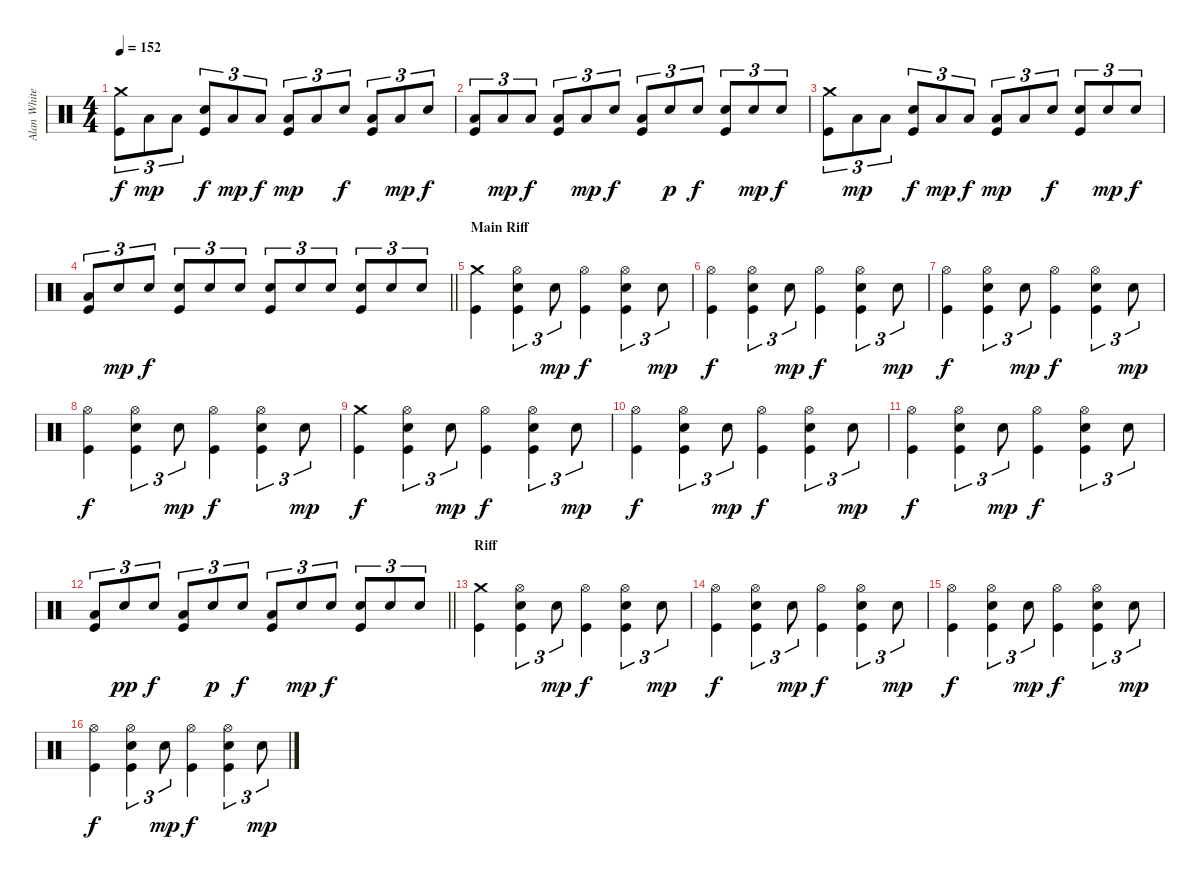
\track ("Alan White" "Alan White") {instrument percussion}
\staff {score}
\articulation defaults
\ts (4 4)
\tempo 152
\clef neutral
\ks c
("Crash medium (hit)" "Kick (hit)").8{tu (3 2) dy f} "Low Tom (hit)".8{tu (3 2) dy mp} "Low Tom (hit)".8{tu (3 2)} ("Electric Snare (hit)" "Kick (hit)").8{tu (3 2) dy f} "Low Tom (hit)".8{tu (3 2) dy mp} "Low Tom (hit)".8{tu (3 2) dy f} ("Low Tom (hit)" "Kick (hit)").8{tu (3 2) dy mp} "Low Tom (hit)".8{tu (3 2)} "Electric Snare (hit)".8{tu (3 2) dy f} ("Low Floor Tom (hit)" "Kick (hit)").8{tu (3 2)} "Low Tom (hit)".8{tu (3 2) dy mp} "Electric Snare (hit)".8{tu (3 2) dy f} |
("Low Tom (hit)" "Kick (hit)").8{tu (3 2)} "Low Tom (hit)".8{tu (3 2) dy mp} "Low Tom (hit)".8{tu (3 2) dy f} ("Low Tom (hit)" "Kick (hit)").8{tu (3 2)} "Low Tom (hit)".8{tu (3 2) dy mp} "Electric Snare (hit)".8{tu (3 2) dy f} ("Low Floor Tom (hit)" "Kick (hit)").8{tu (3 2)} "Electric Snare (hit)".8{tu (3 2) dy p} "Electric Snare (hit)".8{tu (3 2) dy f} ("Electric Snare (hit)" "Kick (hit)").8{tu (3 2)} "Electric Snare (hit)".8{tu (3 2) dy mp} "Electric Snare (hit)".8{tu (3 2) dy f} |
("Crash medium (hit)" "Kick (hit)").8{tu (3 2)} "Low Tom (hit)".8{tu (3 2) dy mp} "Low Tom (hit)".8{tu (3 2)} ("Electric Snare (hit)" "Kick (hit)").8{tu (3 2) dy f} "Low Tom (hit)".8{tu (3 2) dy mp} "Low Tom (hit)".8{tu (3 2) dy f} ("Low Tom (hit)" "Kick (hit)").8{tu (3 2) dy mp} "Low Tom (hit)".8{tu (3 2)} "Electric Snare (hit)".8{tu (3 2) dy f} ("Electric Snare (hit)" "Kick (hit)").8{tu (3 2)} "Electric Snare (hit)".8{tu (3 2) dy mp} "Electric Snare (hit)".8{tu (3 2) dy f} |
\barLineRight lightlight
("Low Tom (hit)" "Kick (hit)").8{tu (3 2)} "Electric Snare (hit)".8{tu (3 2) dy mp} "Electric Snare (hit)".8{tu (3 2) dy f} ("Electric Snare (hit)" "Kick (hit)").8{tu (3 2)} "Electric Snare (hit)".8{tu (3 2)} "Electric Snare (hit)".8{tu (3 2)} ("Electric Snare (hit)" "Kick (hit)").8{tu (3 2)} "Electric Snare (hit)".8{tu (3 2)} "Electric Snare (hit)".8{tu (3 2)} ("Electric Snare (hit)" "Kick (hit)").8{tu (3 2)} "Electric Snare (hit)".8{tu (3 2)} "Electric Snare (hit)".8{tu (3 2)} |
\section ("" "Main Riff")
("Crash medium (hit)" "Kick (hit)").4 ("Hi-Hat (open)" "Electric Snare (hit)" "Kick (hit)").4{tu (3 2)} "Electric Snare (hit)".8{tu (3 2) dy mp} ("Hi-Hat (open)" "Kick (hit)").4{dy f} ("Hi-Hat (open)" "Electric Snare (hit)" "Kick (hit)").4{tu (3 2)} "Electric Snare (hit)".8{tu (3 2) dy mp} |
("Hi-Hat (open)" "Kick (hit)").4{dy f} ("Hi-Hat (open)" "Electric Snare (hit)" "Kick (hit)").4{tu (3 2)} "Electric Snare (hit)".8{tu (3 2) dy mp} ("Hi-Hat (open)" "Kick (hit)").4{dy f} ("Hi-Hat (open)" "Electric Snare (hit)" "Kick (hit)").4{tu (3 2)} "Electric Snare (hit)".8{tu (3 2) dy mp} |
("Hi-Hat (open)" "Kick (hit)").4{dy f} ("Hi-Hat (open)" "Electric Snare (hit)" "Kick (hit)").4{tu (3 2)} "Electric Snare (hit)".8{tu (3 2) dy mp} ("Hi-Hat (open)" "Kick (hit)").4{dy f} ("Hi-Hat (open)" "Electric Snare (hit)" "Kick (hit)").4{tu (3 2)} "Electric Snare (hit)".8{tu (3 2) dy mp} |
("Hi-Hat (open)" "Kick (hit)").4{dy f} ("Hi-Hat (open)" "Electric Snare (hit)" "Kick (hit)").4{tu (3 2)} "Electric Snare (hit)".8{tu (3 2) dy mp} ("Hi-Hat (open)" "Kick (hit)").4{dy f} ("Hi-Hat (open)" "Electric Snare (hit)" "Kick (hit)").4{tu (3 2)} "Electric Snare (hit)".8{tu (3 2) dy mp} |
("Crash medium (hit)" "Kick (hit)").4{dy f} ("Hi-Hat (open)" "Electric Snare (hit)" "Kick (hit)").4{tu (3 2)} "Electric Snare (hit)".8{tu (3 2) dy mp} ("Hi-Hat (open)" "Kick (hit)").4{dy f} ("Hi-Hat (open)" "Electric Snare (hit)" "Kick (hit)").4{tu (3 2)} "Electric Snare (hit)".8{tu (3 2) dy mp} |
("Hi-Hat (open)" "Kick (hit)").4{dy f} ("Hi-Hat (open)" "Electric Snare (hit)" "Kick (hit)").4{tu (3 2)} "Electric Snare (hit)".8{tu (3 2) dy mp} ("Hi-Hat (open)" "Kick (hit)").4{dy f} ("Hi-Hat (open)" "Electric Snare (hit)" "Kick (hit)").4{tu (3 2)} "Electric Snare (hit)".8{tu (3 2) dy mp} |
("Hi-Hat (open)" "Kick (hit)").4{dy f} ("Hi-Hat (open)" "Electric Snare (hit)" "Kick (hit)").4{tu (3 2)} "Electric Snare (hit)".8{tu (3 2) dy mp} ("Hi-Hat (open)" "Kick (hit)").4{dy f} ("Hi-Hat (open)" "Electric Snare (hit)" "Kick (hit)").4{tu (3 2)} "Electric Snare (hit)".8{tu (3 2)} |
\barLineRight lightlight
("Low Tom (hit)" "Kick (hit)").8{tu (3 2)} "Electric Snare (hit)".8{tu (3 2) dy pp} "Electric Snare (hit)".8{tu (3 2) dy f} ("Low Floor Tom (hit)" "Kick (hit)").8{tu (3 2)} "Electric Snare (hit)".8{tu (3 2) dy p} "Electric Snare (hit)".8{tu (3 2) dy f} ("Low Tom (hit)" "Kick (hit)").8{tu (3 2)} "Electric Snare (hit)".8{tu (3 2) dy mp} "Electric Snare (hit)".8{tu (3 2) dy f} ("Electric Snare (hit)" "Kick (hit)").8{tu (3 2)} "Electric Snare (hit)".8{tu (3 2)} "Electric Snare (hit)".8{tu (3 2)} |
\section ("" "Riff")
("Crash medium (hit)" "Kick (hit)").4 ("Hi-Hat (open)" "Electric Snare (hit)" "Kick (hit)").4{tu (3 2)} "Electric Snare (hit)".8{tu (3 2) dy mp} ("Hi-Hat (open)" "Kick (hit)").4{dy f} ("Hi-Hat (open)" "Electric Snare (hit)" "Kick (hit)").4{tu (3 2)} "Electric Snare (hit)".8{tu (3 2) dy mp} |
("Hi-Hat (open)" "Kick (hit)").4{dy f} ("Hi-Hat (open)" "Electric Snare (hit)" "Kick (hit)").4{tu (3 2)} "Electric Snare (hit)".8{tu (3 2) dy mp} ("Hi-Hat (open)" "Kick (hit)").4{dy f} ("Hi-Hat (open)" "Electric Snare (hit)" "Kick (hit)").4{tu (3 2)} "Electric Snare (hit)".8{tu (3 2) dy mp} |
("Hi-Hat (open)" "Kick (hit)").4{dy f} ("Hi-Hat (open)" "Electric Snare (hit)" "Kick (hit)").4{tu (3 2)} "Electric Snare (hit)".8{tu (3 2) dy mp} ("Hi-Hat (open)" "Kick (hit)").4{dy f} ("Hi-Hat (open)" "Electric Snare (hit)" "Kick (hit)").4{tu (3 2)} "Electric Snare (hit)".8{tu (3 2) dy mp} |
("Hi-Hat (open)" "Kick (hit)").4{dy f} ("Hi-Hat (open)" "Electric Snare (hit)" "Kick (hit)").4{tu (3 2)} "Electric Snare (hit)".8{tu (3 2) dy mp} ("Hi-Hat (open)" "Kick (hit)").4{dy f} ("Hi-Hat (open)" "Electric Snare (hit)" "Kick (hit)").4{tu (3 2)} "Electric Snare (hit)".8{tu (3 2) dy mp}
